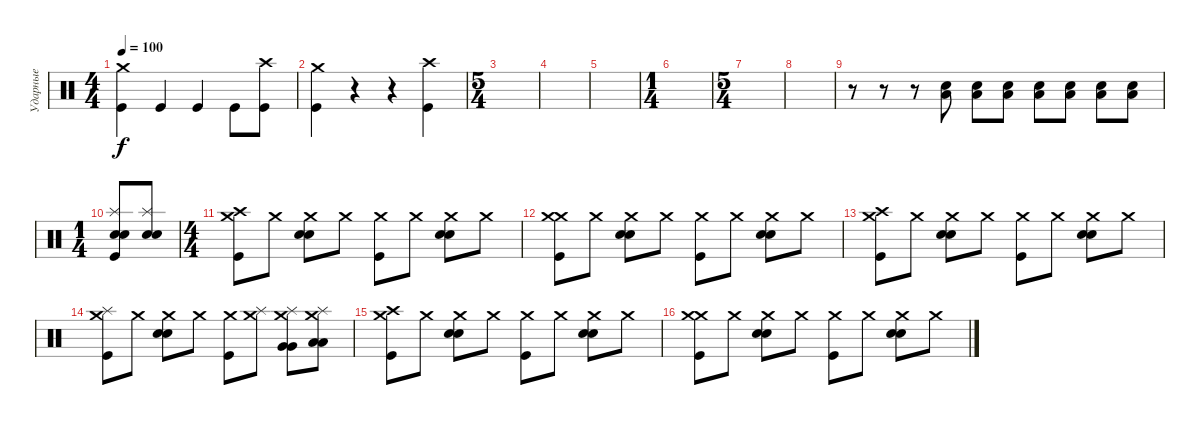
\track ("Ударные" "Ударные") {instrument percussion}
\staff {score}
\articulation defaults
\ts (4 4)
\tempo 100
\clef neutral
\ks c
("Crash medium (hit)" "Kick (hit)").4{dy f} "Kick (hit)".4 "Kick (hit)".4 "Kick (hit)".8 ("Crash high (hit)" "Kick (hit)").8 |
("Crash medium (hit)" "Kick (hit)").4 r.4 r.4 ("Crash high (hit)" "Kick (hit)").4 |
\ts (5 4)
|
|
|
\ts (1 4)
|
\ts (5 4)
|
|
r.8 r.8 r.8 ("Electric Snare (hit)" "Low Floor Tom (hit)").8 ("Electric Snare (hit)" "Low Floor Tom (hit)").8 ("Electric Snare (hit)" "Low Floor Tom (hit)").8 ("Electric Snare (hit)" "Low Floor Tom (hit)").8 ("Electric Snare (hit)" "Low Floor Tom (hit)").8 ("Electric Snare (hit)" "Low Floor Tom (hit)").8 ("Electric Snare (hit)" "Low Floor Tom (hit)").8 |
\ts (1 4)
("Splash (hit)" "Electric Snare (hit)" "Snare (hit) 2" "Kick (hit)").8 ("Splash (hit)" "Electric Snare (hit)" "Snare (hit) 2").8 |
\ts (4 4)
("Crash medium (hit)" "Crash high (hit)" "Kick (hit)").8 "Crash medium (hit)".8 ("Crash medium (hit)" "Snare (hit) 2" "Snare (hit) 2").8 "Crash medium (hit)".8 ("Crash medium (hit)" "Kick (hit)").8 "Crash medium (hit)".8 ("Crash medium (hit)" "Snare (hit) 2" "Snare (hit) 2").8 "Crash medium (hit)".8 |
("Crash medium (hit)" "Crash medium (hit)" "Kick (hit)").8 "Crash medium (hit)".8 ("Crash medium (hit)" "Snare (hit) 2" "Snare (hit) 2").8 "Crash medium (hit)".8 ("Crash medium (hit)" "Kick (hit)").8 "Crash medium (hit)".8 ("Crash medium (hit)" "Snare (hit) 2" "Snare (hit) 2").8 "Crash medium (hit)".8 |
("Crash medium (hit)" "Crash high (hit)" "Kick (hit)").8 "Crash medium (hit)".8 ("Crash medium (hit)" "Snare (hit) 2" "Snare (hit) 2").8 "Crash medium (hit)".8 ("Crash medium (hit)" "Kick (hit)").8 "Crash medium (hit)".8 ("Crash medium (hit)" "Snare (hit) 2" "Snare (hit) 2").8 "Crash medium (hit)".8 |
("Crash medium (hit)" "Splash (hit)" "Kick (hit)").8 "Crash medium (hit)".8 ("Crash medium (hit)" "Snare (hit) 2" "Snare (hit) 2").8 "Crash medium (hit)".8 ("Crash medium (hit)" "Kick (hit)").8 ("Crash medium (hit)" "Splash (hit)").8 ("Crash medium (hit)" "Splash (hit)" "Very Low Tom (hit)" "Very Low Tom (hit)").8 ("Crash medium (hit)" "Splash (hit)" "Low Floor Tom (hit)" "Low Floor Tom (hit)").8 |
("Crash medium (hit)" "Crash high (hit)" "Kick (hit)").8 "Crash medium (hit)".8 ("Crash medium (hit)" "Snare (hit) 2" "Snare (hit) 2").8 "Crash medium (hit)".8 ("Crash medium (hit)" "Kick (hit)").8 "Crash medium (hit)".8 ("Crash medium (hit)" "Snare (hit) 2" "Snare (hit) 2").8 "Crash medium (hit)".8 |
("Crash medium (hit)" "Crash medium (hit)" "Kick (hit)").8 "Crash medium (hit)".8 ("Crash medium (hit)" "Snare (hit) 2" "Snare (hit) 2").8 "Crash medium (hit)".8 ("Crash medium (hit)" "Kick (hit)").8 "Crash medium (hit)".8 ("Crash medium (hit)" "Snare (hit) 2" "Snare (hit) 2").8 "Crash medium (hit)".8
